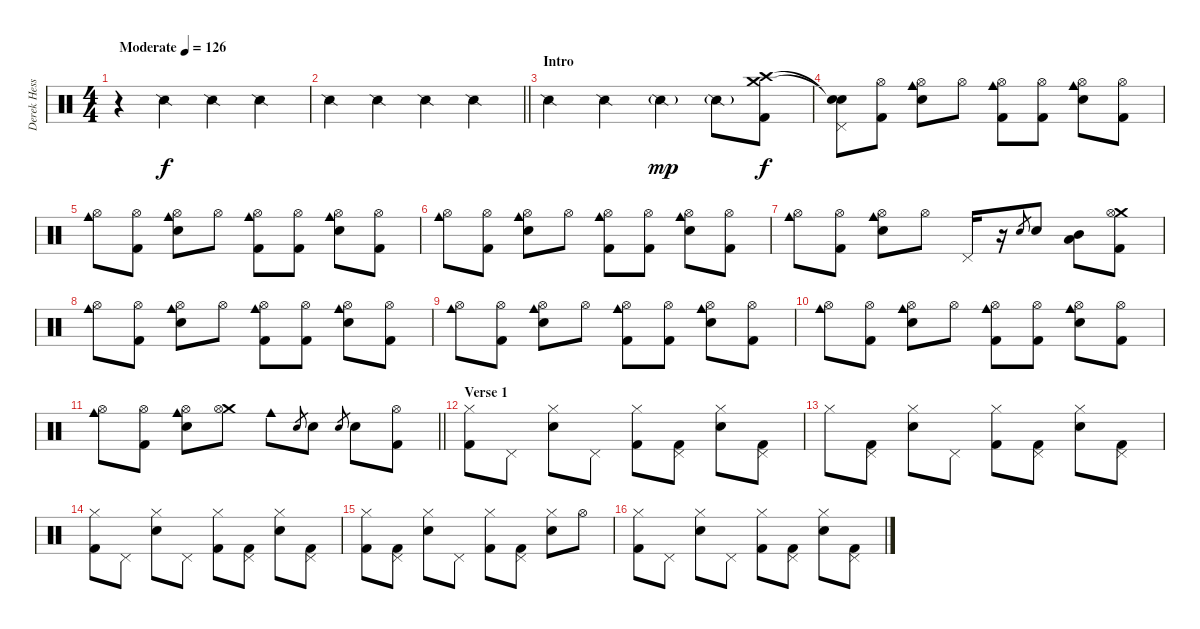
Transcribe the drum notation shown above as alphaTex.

\track ("Derek Hess - Drums and Percussion" "Derek Hess") {instrument percussion}
\staff {score}
\articulation defaults
\ts (4 4)
\tempo (126 "Moderate")
\clef neutral
\ks c
r.4{dy f} "Snare (side stick) 2".4 "Snare (side stick) 2".4 "Snare (side stick) 2".4 |
\barLineRight lightlight "Snare (side stick) 2".4 "Snare (side stick) 2".4 "Snare (side stick) 2".4 "Snare (side stick) 2".4
|
\section ("" "Intro")
"Snare (side stick) 2".4 "Snare (side stick) 2".4 "Snare (side stick) 2"{g}.4{dy mp} "Snare (side stick) 2"{g}.8 ("Crash high (hit)" "Crash medium (hit)" "Kick (hit) 2").8{dy f} |
("Snare (hit)"{t} "Snare (hit)"{t} "Pedal Hi-Hat (hit)").8 ("Hi-Hat (open)" "Kick (hit) 2").8 ("Snare (hit) 2" "Hi-Hat (open)" "Cowbell medium (hit)").8 "Hi-Hat (open)".8 ("Hi-Hat (open)" "Cowbell medium (hit)" "Kick (hit) 2").8 ("Hi-Hat (open)" "Kick (hit) 2").8 ("Snare (hit) 2" "Hi-Hat (open)" "Cowbell medium (hit)").8 ("Hi-Hat (open)" "Kick (hit) 2").8 |
("Hi-Hat (open)" "Cowbell medium (hit)").8 ("Hi-Hat (open)" "Kick (hit) 2").8 ("Snare (hit) 2" "Hi-Hat (open)" "Cowbell medium (hit)").8 "Hi-Hat (open)".8 ("Hi-Hat (open)" "Cowbell medium (hit)" "Kick (hit) 2").8 ("Hi-Hat (open)" "Kick (hit) 2").8 ("Snare (hit) 2" "Hi-Hat (open)" "Cowbell medium (hit)").8 ("Hi-Hat (open)" "Kick (hit) 2").8 |
("Hi-Hat (open)" "Cowbell medium (hit)").8 ("Hi-Hat (open)" "Kick (hit) 2").8 ("Snare (hit) 2" "Hi-Hat (open)" "Cowbell medium (hit)").8 "Hi-Hat (open)".8 ("Hi-Hat (open)" "Cowbell medium (hit)" "Kick (hit) 2").8 ("Hi-Hat (open)" "Kick (hit) 2").8 ("Snare (hit) 2" "Hi-Hat (open)" "Cowbell medium (hit)").8 ("Hi-Hat (open)" "Kick (hit) 2").8 |
("Hi-Hat (open)" "Cowbell medium (hit)").8 ("Hi-Hat (open)" "Kick (hit) 2").8 ("Snare (hit) 2" "Hi-Hat (open)" "Cowbell medium (hit)").8 "Hi-Hat (open)".8 "Pedal Hi-Hat (hit)".16 r.16 "Snare (hit) 2".8{gr} "Snare (hit) 2".8 ("Low Tom (hit)" "Mid Tom (hit)").8 ("Crash medium (hit)" "Hi-Hat (open)" "Kick (hit) 2").8 |
("Hi-Hat (open)" "Cowbell medium (hit)").8 ("Hi-Hat (open)" "Kick (hit) 2").8 ("Snare (hit) 2" "Hi-Hat (open)" "Cowbell medium (hit)").8 "Hi-Hat (open)".8 ("Hi-Hat (open)" "Cowbell medium (hit)" "Kick (hit) 2").8 ("Hi-Hat (open)" "Kick (hit) 2").8 ("Snare (hit) 2" "Hi-Hat (open)" "Cowbell medium (hit)").8 ("Hi-Hat (open)" "Kick (hit) 2").8 |
("Hi-Hat (open)" "Cowbell medium (hit)").8 ("Hi-Hat (open)" "Kick (hit) 2").8 ("Snare (hit) 2" "Hi-Hat (open)" "Cowbell medium (hit)").8 "Hi-Hat (open)".8 ("Hi-Hat (open)" "Cowbell medium (hit)" "Kick (hit) 2").8 ("Hi-Hat (open)" "Kick (hit) 2").8 ("Snare (hit) 2" "Hi-Hat (open)" "Cowbell medium (hit)").8 ("Hi-Hat (open)" "Kick (hit) 2").8 |
("Hi-Hat (open)" "Cowbell medium (hit)").8 ("Hi-Hat (open)" "Kick (hit) 2").8 ("Snare (hit) 2" "Hi-Hat (open)" "Cowbell medium (hit)").8 "Hi-Hat (open)".8 ("Hi-Hat (open)" "Cowbell medium (hit)" "Kick (hit) 2").8 ("Hi-Hat (open)" "Kick (hit) 2").8 ("Snare (hit) 2" "Hi-Hat (open)" "Cowbell medium (hit)").8 ("Hi-Hat (open)" "Kick (hit) 2").8 |
\barLineRight lightlight
("Hi-Hat (open)" "Cowbell medium (hit)").8 ("Hi-Hat (open)" "Kick (hit) 2").8 ("Snare (hit) 2" "Hi-Hat (open)" "Cowbell medium (hit)").8 ("Crash medium (hit)" "Hi-Hat (open)").8 "Cowbell medium (hit)".8 "Snare (hit) 2".8{gr} "Snare (hit) 2".8 "Snare (hit) 2".8{gr} "Snare (hit) 2".8 ("Hi-Hat (open)" "Kick (hit) 2").8 |
\section ("" "Verse 1")
("Hi-Hat (closed)" "Kick (hit) 2").8 "Pedal Hi-Hat (hit)".8 ("Snare (hit) 2" "Hi-Hat (closed)").8 "Pedal Hi-Hat (hit)".8 ("Hi-Hat (closed)" "Kick (hit) 2").8 ("Pedal Hi-Hat (hit)" "Kick (hit) 2").8 ("Snare (hit) 2" "Hi-Hat (closed)").8 ("Pedal Hi-Hat (hit)" "Kick (hit) 2").8 |
"Hi-Hat (closed)".8 ("Pedal Hi-Hat (hit)" "Kick (hit) 2").8 ("Snare (hit) 2" "Hi-Hat (closed)").8 "Pedal Hi-Hat (hit)".8 ("Hi-Hat (closed)" "Kick (hit) 2").8 ("Pedal Hi-Hat (hit)" "Kick (hit) 2").8 ("Snare (hit) 2" "Hi-Hat (closed)").8 ("Pedal Hi-Hat (hit)" "Kick (hit) 2").8 |
("Hi-Hat (closed)" "Kick (hit) 2").8 "Pedal Hi-Hat (hit)".8 ("Snare (hit) 2" "Hi-Hat (closed)").8 "Pedal Hi-Hat (hit)".8 ("Hi-Hat (closed)" "Kick (hit) 2").8 ("Pedal Hi-Hat (hit)" "Kick (hit) 2").8 ("Snare (hit) 2" "Hi-Hat (closed)").8 ("Pedal Hi-Hat (hit)" "Kick (hit) 2").8 |
("Hi-Hat (closed)" "Kick (hit) 2").8 ("Pedal Hi-Hat (hit)" "Kick (hit) 2").8 ("Snare (hit) 2" "Hi-Hat (closed)").8 "Pedal Hi-Hat (hit)".8 ("Hi-Hat (closed)" "Kick (hit) 2").8 ("Pedal Hi-Hat (hit)" "Kick (hit) 2").8 ("Snare (hit) 2" "Hi-Hat (closed)").8 "Hi-Hat (open)".8 |
("Hi-Hat (closed)" "Kick (hit) 2").8 "Pedal Hi-Hat (hit)".8 ("Snare (hit) 2" "Hi-Hat (closed)").8 "Pedal Hi-Hat (hit)".8 ("Hi-Hat (closed)" "Kick (hit) 2").8 ("Pedal Hi-Hat (hit)" "Kick (hit) 2").8 ("Snare (hit) 2" "Hi-Hat (closed)").8 ("Pedal Hi-Hat (hit)" "Kick (hit) 2").8
